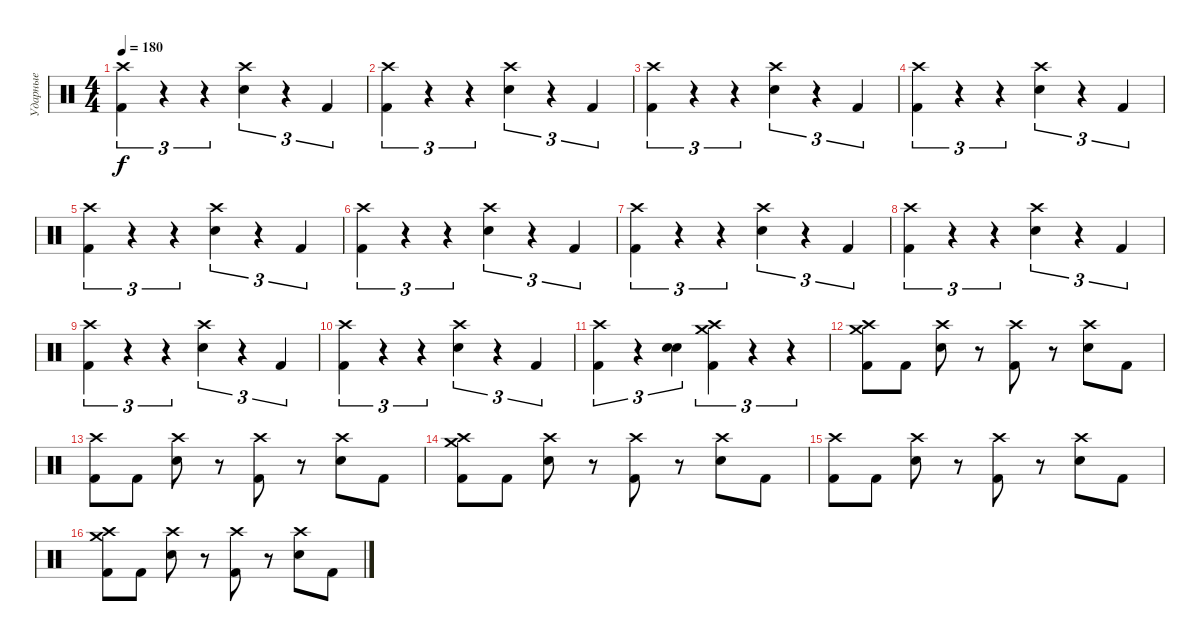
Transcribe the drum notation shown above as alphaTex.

\track ("Ударные" "Ударные") {instrument percussion}
\staff {score}
\articulation defaults
\ts (4 4)
\tempo 180
\clef neutral
\ks c
("Crash high (hit)" "Kick (hit) 2").4{tu (3 2) dy f} r.4{tu (3 2)} r.4{tu (3 2)} ("Crash high (hit)" "Snare (hit) 2").4{tu (3 2)} r.4{tu (3 2)} "Kick (hit) 2".4{tu (3 2)} |
("Crash high (hit)" "Kick (hit) 2").4{tu (3 2)} r.4{tu (3 2)} r.4{tu (3 2)} ("Crash high (hit)" "Snare (hit) 2").4{tu (3 2)} r.4{tu (3 2)} "Kick (hit) 2".4{tu (3 2)} |
("Crash high (hit)" "Kick (hit) 2").4{tu (3 2)} r.4{tu (3 2)} r.4{tu (3 2)} ("Crash high (hit)" "Snare (hit) 2").4{tu (3 2)} r.4{tu (3 2)} "Kick (hit) 2".4{tu (3 2)} |
("Crash high (hit)" "Kick (hit) 2").4{tu (3 2)} r.4{tu (3 2)} r.4{tu (3 2)} ("Crash high (hit)" "Snare (hit) 2").4{tu (3 2)} r.4{tu (3 2)} "Kick (hit) 2".4{tu (3 2)} |
("Crash high (hit)" "Kick (hit) 2").4{tu (3 2)} r.4{tu (3 2)} r.4{tu (3 2)} ("Crash high (hit)" "Snare (hit) 2").4{tu (3 2)} r.4{tu (3 2)} "Kick (hit) 2".4{tu (3 2)} |
("Crash high (hit)" "Kick (hit) 2").4{tu (3 2)} r.4{tu (3 2)} r.4{tu (3 2)} ("Crash high (hit)" "Snare (hit) 2").4{tu (3 2)} r.4{tu (3 2)} "Kick (hit) 2".4{tu (3 2)} |
("Crash high (hit)" "Kick (hit) 2").4{tu (3 2)} r.4{tu (3 2)} r.4{tu (3 2)} ("Crash high (hit)" "Snare (hit) 2").4{tu (3 2)} r.4{tu (3 2)} "Kick (hit) 2".4{tu (3 2)} |
("Crash high (hit)" "Kick (hit) 2").4{tu (3 2)} r.4{tu (3 2)} r.4{tu (3 2)} ("Crash high (hit)" "Snare (hit) 2").4{tu (3 2)} r.4{tu (3 2)} "Kick (hit) 2".4{tu (3 2)} |
("Crash high (hit)" "Kick (hit) 2").4{tu (3 2)} r.4{tu (3 2)} r.4{tu (3 2)} ("Crash high (hit)" "Snare (hit) 2").4{tu (3 2)} r.4{tu (3 2)} "Kick (hit) 2".4{tu (3 2)} |
("Crash high (hit)" "Kick (hit) 2").4{tu (3 2)} r.4{tu (3 2)} r.4{tu (3 2)} ("Crash high (hit)" "Snare (hit) 2").4{tu (3 2)} r.4{tu (3 2)} "Kick (hit) 2".4{tu (3 2)} |
("Crash high (hit)" "Kick (hit) 2").4{tu (3 2)} r.4{tu (3 2)} ("Snare (hit) 2" "Snare (hit) 2").4{tu (3 2)} ("Crash high (hit)" "Crash medium (hit)" "Kick (hit) 2").4{tu (3 2)} r.4{tu (3 2)} r.4{tu (3 2)} |
("Crash medium (hit)" "Crash high (hit)" "Kick (hit) 2").8 "Kick (hit) 2".8 ("Crash high (hit)" "Snare (hit) 2").8 r.8 ("Crash high (hit)" "Kick (hit) 2").8 r.8 ("Crash high (hit)" "Snare (hit) 2").8 "Kick (hit) 2".8 |
("Crash high (hit)" "Kick (hit) 2").8 "Kick (hit) 2".8 ("Crash high (hit)" "Snare (hit) 2").8 r.8 ("Crash high (hit)" "Kick (hit) 2").8 r.8 ("Crash high (hit)" "Snare (hit) 2").8 "Kick (hit) 2".8 |
("Crash medium (hit)" "Crash high (hit)" "Kick (hit) 2").8 "Kick (hit) 2".8 ("Crash high (hit)" "Snare (hit) 2").8 r.8 ("Crash high (hit)" "Kick (hit) 2").8 r.8 ("Crash high (hit)" "Snare (hit) 2").8 "Kick (hit) 2".8 |
("Crash high (hit)" "Kick (hit) 2").8 "Kick (hit) 2".8 ("Crash high (hit)" "Snare (hit) 2").8 r.8 ("Crash high (hit)" "Kick (hit) 2").8 r.8 ("Crash high (hit)" "Snare (hit) 2").8 "Kick (hit) 2".8 |
("Crash medium (hit)" "Crash high (hit)" "Kick (hit) 2").8 "Kick (hit) 2".8 ("Crash high (hit)" "Snare (hit) 2").8 r.8 ("Crash high (hit)" "Kick (hit) 2").8 r.8 ("Crash high (hit)" "Snare (hit) 2").8 "Kick (hit) 2".8
